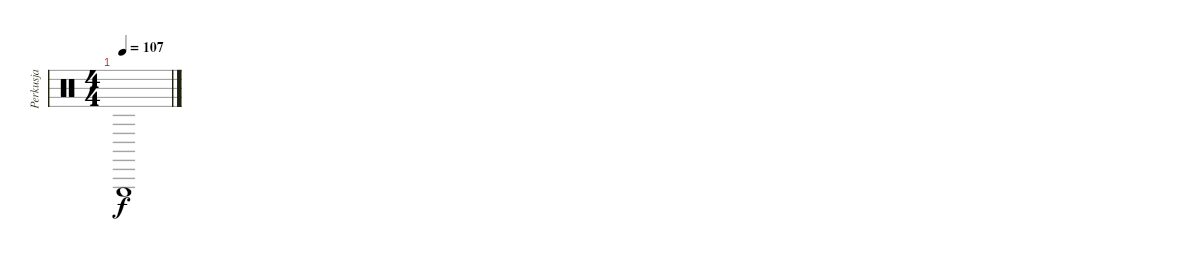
\track ("Perkusja" "Perkusja") {instrument percussion}
\staff {score}
\articulation defaults
\ts (4 4)
\tempo 107
\clef neutral
\ks c "Triangle (hit)".1{dy f}
